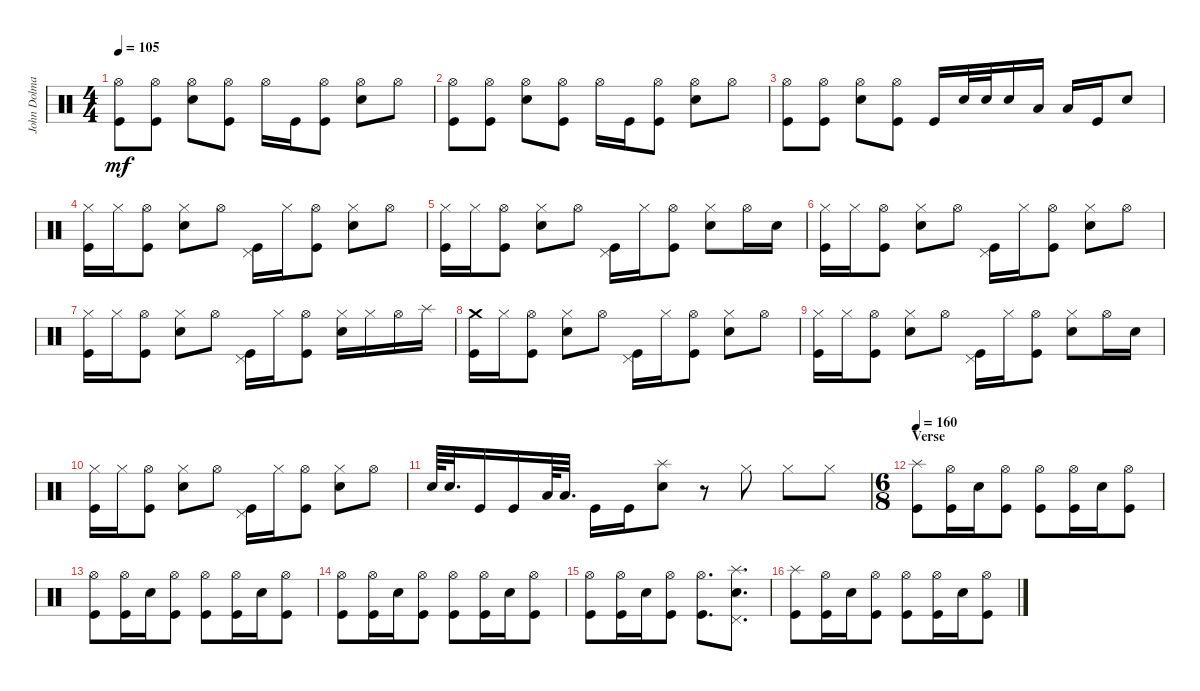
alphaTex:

\track ("John Dolmayan" "John Dolma") {instrument percussion}
\staff {score}
\articulation defaults
\ts (4 4)
\tempo 105
\clef neutral
\ks c
("Kick (hit)" "Hi-Hat (open)").8{dy mf} ("Kick (hit)" "Hi-Hat (open)").8 ("Snare (hit) 2" "Hi-Hat (open)").8 ("Kick (hit)" "Hi-Hat (open)").8 "Hi-Hat (open)".16 "Kick (hit)".16 ("Hi-Hat (open)" "Kick (hit)").8 ("Snare (hit) 2" "Hi-Hat (open)").8 "Hi-Hat (open)".8 |
("Kick (hit)" "Hi-Hat (open)").8 ("Kick (hit)" "Hi-Hat (open)").8 ("Snare (hit) 2" "Hi-Hat (open)").8 ("Kick (hit)" "Hi-Hat (open)").8 "Hi-Hat (open)".16 "Kick (hit)".16 ("Hi-Hat (open)" "Kick (hit)").8 ("Snare (hit) 2" "Hi-Hat (open)").8 "Hi-Hat (open)".8 |
("Kick (hit)" "Hi-Hat (open)").8 ("Kick (hit)" "Hi-Hat (open)").8 ("Snare (hit) 2" "Hi-Hat (open)").8 ("Hi-Hat (open)" "Kick (hit)").8 "Kick (hit)".16 "Snare (hit) 2".32 "Snare (hit) 2".32 "Snare (hit) 2".16 "Low Tom (hit)".16 "Low Tom (hit)".16 "Kick (hit)".16 "Snare (hit) 2".8 |
("Hi-Hat (closed)" "Kick (hit)").16 "Hi-Hat (closed)".16 ("Hi-Hat (open)" "Kick (hit)").8 ("Hi-Hat (closed)" "Snare (hit) 2").8 "Hi-Hat (open)".8 ("Pedal Hi-Hat (hit)" "Kick (hit)").16 "Hi-Hat (closed)".16 ("Hi-Hat (open)" "Kick (hit)").8 ("Hi-Hat (closed)" "Snare (hit) 2").8 "Hi-Hat (open)".8 |
("Hi-Hat (closed)" "Kick (hit)").16 "Hi-Hat (closed)".16 ("Hi-Hat (open)" "Kick (hit)").8 ("Hi-Hat (closed)" "Snare (hit) 2").8 "Hi-Hat (open)".8 ("Pedal Hi-Hat (hit)" "Kick (hit)").16 "Hi-Hat (closed)".16 ("Hi-Hat (open)" "Kick (hit)").8 ("Hi-Hat (closed)" "Snare (hit) 2").8 "Hi-Hat (open)".16 "Snare (hit) 2".16 |
("Hi-Hat (closed)" "Kick (hit)").16 "Hi-Hat (closed)".16 ("Hi-Hat (open)" "Kick (hit)").8 ("Hi-Hat (closed)" "Snare (hit) 2").8 "Hi-Hat (open)".8 ("Pedal Hi-Hat (hit)" "Kick (hit)").16 "Hi-Hat (closed)".16 ("Hi-Hat (open)" "Kick (hit)").8 ("Hi-Hat (closed)" "Snare (hit) 2").8 "Hi-Hat (open)".8 |
("Hi-Hat (closed)" "Kick (hit)").16 "Hi-Hat (closed)".16 ("Hi-Hat (open)" "Kick (hit)").8 ("Hi-Hat (closed)" "Snare (hit) 2").8 "Hi-Hat (open)".8 ("Pedal Hi-Hat (hit)" "Kick (hit)").16 "Hi-Hat (closed)".16 ("Hi-Hat (open)" "Kick (hit)").8 ("Snare (hit) 2" "Hi-Hat (closed)").16 "Hi-Hat (closed)".16 "Hi-Hat (open)".16 "Splash (hit)".16 |
("Kick (hit)" "Crash medium (hit)").16 "Hi-Hat (closed)".16 ("Hi-Hat (open)" "Kick (hit)").8 ("Hi-Hat (closed)" "Snare (hit) 2").8 "Hi-Hat (open)".8 ("Pedal Hi-Hat (hit)" "Kick (hit)").16 "Hi-Hat (closed)".16 ("Hi-Hat (open)" "Kick (hit)").8 ("Hi-Hat (closed)" "Snare (hit) 2").8 "Hi-Hat (open)".8 |
("Hi-Hat (closed)" "Kick (hit)").16 "Hi-Hat (closed)".16 ("Hi-Hat (open)" "Kick (hit)").8 ("Hi-Hat (closed)" "Snare (hit) 2").8 "Hi-Hat (open)".8 ("Pedal Hi-Hat (hit)" "Kick (hit)").16 "Hi-Hat (closed)".16 ("Hi-Hat (open)" "Kick (hit)").8 ("Hi-Hat (closed)" "Snare (hit) 2").8 "Hi-Hat (open)".16 "Snare (hit) 2".16 |
("Hi-Hat (closed)" "Kick (hit)").16 "Hi-Hat (closed)".16 ("Hi-Hat (open)" "Kick (hit)").8 ("Hi-Hat (closed)" "Snare (hit) 2").8 "Hi-Hat (open)".8 ("Pedal Hi-Hat (hit)" "Kick (hit)").16 "Hi-Hat (closed)".16 ("Hi-Hat (open)" "Kick (hit)").8 ("Hi-Hat (closed)" "Snare (hit) 2").8 "Hi-Hat (open)".8 |
"Snare (hit) 2".64 "Snare (hit) 2".32{d} "Kick (hit)".16 "Kick (hit)".16 "Low Tom (hit)".64 "Low Tom (hit)".32{d} "Kick (hit)".16 "Kick (hit)".16 ("Snare (hit) 2" "Splash (hit)").8 r.8 "Hi-Hat (closed)".8 "Hi-Hat (closed)".8 "Hi-Hat (closed)".8 |
\ts (6 8)
\section ("" "Verse")
\tempo 160
("Kick (hit)" "Splash (hit)").8 ("Kick (hit)" "Hi-Hat (open)").16 "Snare (hit) 2".16 ("Kick (hit)" "Hi-Hat (open)").8 ("Kick (hit)" "Hi-Hat (open)").8 ("Kick (hit)" "Hi-Hat (open)").16 "Snare (hit) 2".16 ("Kick (hit)" "Hi-Hat (open)").8 |
("Kick (hit)" "Hi-Hat (open)").8 ("Kick (hit)" "Hi-Hat (open)").16 "Snare (hit) 2".16 ("Kick (hit)" "Hi-Hat (open)").8 ("Kick (hit)" "Hi-Hat (open)").8 ("Kick (hit)" "Hi-Hat (open)").16 "Snare (hit) 2".16 ("Kick (hit)" "Hi-Hat (open)").8 |
("Kick (hit)" "Hi-Hat (open)").8 ("Kick (hit)" "Hi-Hat (open)").16 "Snare (hit) 2".16 ("Kick (hit)" "Hi-Hat (open)").8 ("Kick (hit)" "Hi-Hat (open)").8 ("Kick (hit)" "Hi-Hat (open)").16 "Snare (hit) 2".16 ("Kick (hit)" "Hi-Hat (open)").8 |
("Kick (hit)" "Hi-Hat (open)").8 ("Kick (hit)" "Hi-Hat (open)").16 "Snare (hit) 2".16 ("Kick (hit)" "Hi-Hat (open)").8 ("Kick (hit)" "Hi-Hat (open)").8{d} ("Snare (hit) 2" "Splash (hit)" "Pedal Hi-Hat (hit)").8{d} |
("Kick (hit)" "Splash (hit)").8 ("Kick (hit)" "Hi-Hat (open)").16 "Snare (hit) 2".16 ("Kick (hit)" "Hi-Hat (open)").8 ("Kick (hit)" "Hi-Hat (open)").8 ("Kick (hit)" "Hi-Hat (open)").16 "Snare (hit) 2".16 ("Kick (hit)" "Hi-Hat (open)").8
